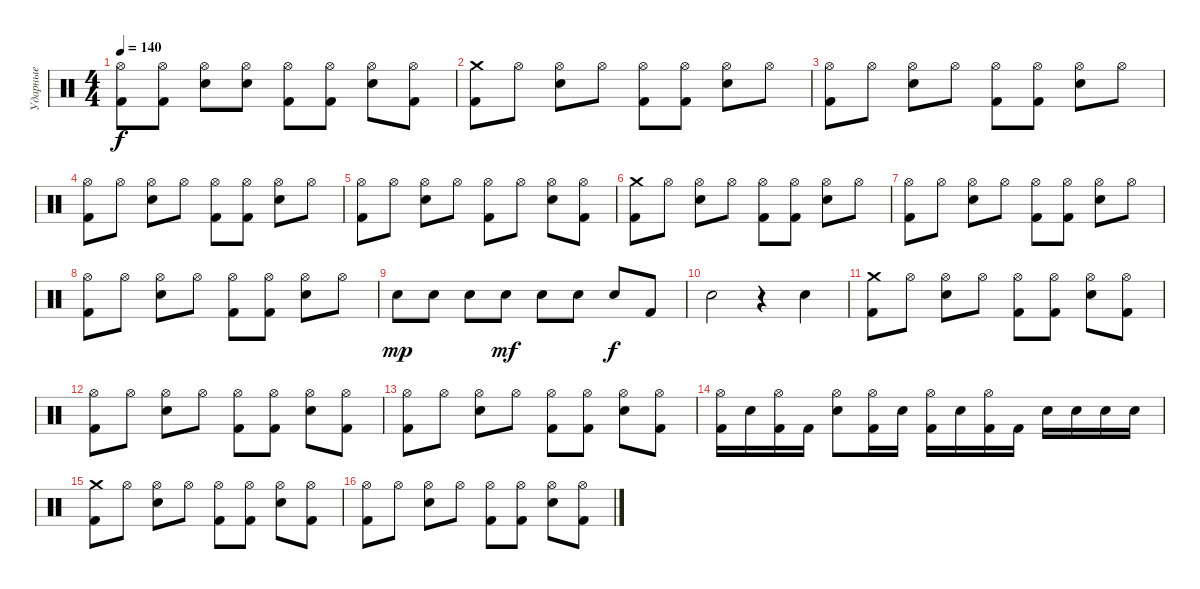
\track ("Ударные" "Ударные") {instrument percussion}
\staff {score}
\articulation defaults
\ts (4 4)
\tempo 140
\clef neutral
\ks c
("Hi-Hat (open)" "Kick (hit) 2").8{dy f} ("Hi-Hat (open)" "Kick (hit) 2").8 ("Hi-Hat (open)" "Electric Snare (hit)").8 ("Hi-Hat (open)" "Electric Snare (hit)").8 ("Hi-Hat (open)" "Kick (hit) 2").8 ("Hi-Hat (open)" "Kick (hit) 2").8 ("Hi-Hat (open)" "Electric Snare (hit)").8 ("Hi-Hat (open)" "Kick (hit) 2").8 |
("Crash medium (hit)" "Kick (hit) 2").8 "Hi-Hat (open)".8 ("Hi-Hat (open)" "Electric Snare (hit)").8 "Hi-Hat (open)".8 ("Hi-Hat (open)" "Kick (hit) 2").8 ("Hi-Hat (open)" "Kick (hit) 2").8 ("Hi-Hat (open)" "Electric Snare (hit)").8 "Hi-Hat (open)".8 |
("Hi-Hat (open)" "Kick (hit) 2").8 "Hi-Hat (open)".8 ("Hi-Hat (open)" "Electric Snare (hit)").8 "Hi-Hat (open)".8 ("Hi-Hat (open)" "Kick (hit) 2").8 ("Hi-Hat (open)" "Kick (hit) 2").8 ("Hi-Hat (open)" "Electric Snare (hit)").8 "Hi-Hat (open)".8 |
("Hi-Hat (open)" "Kick (hit) 2").8 "Hi-Hat (open)".8 ("Hi-Hat (open)" "Electric Snare (hit)").8 "Hi-Hat (open)".8 ("Hi-Hat (open)" "Kick (hit) 2").8 ("Hi-Hat (open)" "Kick (hit) 2").8 ("Hi-Hat (open)" "Electric Snare (hit)").8 "Hi-Hat (open)".8 |
("Hi-Hat (open)" "Kick (hit) 2").8 "Hi-Hat (open)".8 ("Hi-Hat (open)" "Electric Snare (hit)").8 "Hi-Hat (open)".8 ("Hi-Hat (open)" "Kick (hit) 2").8 "Hi-Hat (open)".8 ("Hi-Hat (open)" "Electric Snare (hit)").8 ("Hi-Hat (open)" "Kick (hit) 2").8 |
("Crash medium (hit)" "Kick (hit) 2").8 "Hi-Hat (open)".8 ("Hi-Hat (open)" "Electric Snare (hit)").8 "Hi-Hat (open)".8 ("Hi-Hat (open)" "Kick (hit) 2").8 ("Hi-Hat (open)" "Kick (hit) 2").8 ("Hi-Hat (open)" "Electric Snare (hit)").8 "Hi-Hat (open)".8 |
("Hi-Hat (open)" "Kick (hit) 2").8 "Hi-Hat (open)".8 ("Hi-Hat (open)" "Electric Snare (hit)").8 "Hi-Hat (open)".8 ("Hi-Hat (open)" "Kick (hit) 2").8 ("Hi-Hat (open)" "Kick (hit) 2").8 ("Hi-Hat (open)" "Electric Snare (hit)").8 "Hi-Hat (open)".8 |
("Hi-Hat (open)" "Kick (hit) 2").8 "Hi-Hat (open)".8 ("Hi-Hat (open)" "Electric Snare (hit)").8 "Hi-Hat (open)".8 ("Hi-Hat (open)" "Kick (hit) 2").8 ("Hi-Hat (open)" "Kick (hit) 2").8 ("Hi-Hat (open)" "Electric Snare (hit)").8 "Hi-Hat (open)".8 |
"Electric Snare (hit)".8{dy mp} "Electric Snare (hit)".8 "Electric Snare (hit)".8 "Electric Snare (hit)".8{dy mf} "Electric Snare (hit)".8 "Electric Snare (hit)".8 "Electric Snare (hit)".8{dy f} "Kick (hit) 2".8 |
"Electric Snare (hit)".2 r.4 "Electric Snare (hit)".4 |
("Crash medium (hit)" "Kick (hit) 2").8 "Hi-Hat (open)".8 ("Hi-Hat (open)" "Electric Snare (hit)").8 "Hi-Hat (open)".8 ("Hi-Hat (open)" "Kick (hit) 2").8 ("Hi-Hat (open)" "Kick (hit) 2").8 ("Hi-Hat (open)" "Electric Snare (hit)").8 ("Hi-Hat (open)" "Kick (hit) 2").8 |
("Hi-Hat (open)" "Kick (hit) 2").8 "Hi-Hat (open)".8 ("Hi-Hat (open)" "Electric Snare (hit)").8 "Hi-Hat (open)".8 ("Hi-Hat (open)" "Kick (hit) 2").8 ("Hi-Hat (open)" "Kick (hit) 2").8 ("Hi-Hat (open)" "Electric Snare (hit)").8 ("Hi-Hat (open)" "Kick (hit) 2").8 |
("Hi-Hat (open)" "Kick (hit) 2").8 "Hi-Hat (open)".8 ("Hi-Hat (open)" "Electric Snare (hit)").8 "Hi-Hat (open)".8 ("Hi-Hat (open)" "Kick (hit) 2").8 ("Hi-Hat (open)" "Kick (hit) 2").8 ("Hi-Hat (open)" "Electric Snare (hit)").8 ("Hi-Hat (open)" "Kick (hit) 2").8 |
("Hi-Hat (open)" "Kick (hit) 2").16 "Electric Snare (hit)".16 ("Hi-Hat (open)" "Kick (hit) 2").16 "Kick (hit) 2".16 ("Hi-Hat (open)" "Electric Snare (hit)").8 ("Hi-Hat (open)" "Kick (hit) 2").16 "Electric Snare (hit)".16 ("Hi-Hat (open)" "Kick (hit) 2").16 "Electric Snare (hit)".16 ("Hi-Hat (open)" "Kick (hit) 2").16 "Kick (hit) 2".16 "Electric Snare (hit)".16 "Electric Snare (hit)".16 "Electric Snare (hit)".16 "Electric Snare (hit)".16 |
("Crash medium (hit)" "Kick (hit) 2").8 "Hi-Hat (open)".8 ("Hi-Hat (open)" "Electric Snare (hit)").8 "Hi-Hat (open)".8 ("Hi-Hat (open)" "Kick (hit) 2").8 ("Hi-Hat (open)" "Kick (hit) 2").8 ("Hi-Hat (open)" "Electric Snare (hit)").8 ("Hi-Hat (open)" "Kick (hit) 2").8 |
("Hi-Hat (open)" "Kick (hit) 2").8 "Hi-Hat (open)".8 ("Hi-Hat (open)" "Electric Snare (hit)").8 "Hi-Hat (open)".8 ("Hi-Hat (open)" "Kick (hit) 2").8 ("Hi-Hat (open)" "Kick (hit) 2").8 ("Hi-Hat (open)" "Electric Snare (hit)").8 ("Hi-Hat (open)" "Kick (hit) 2").8
